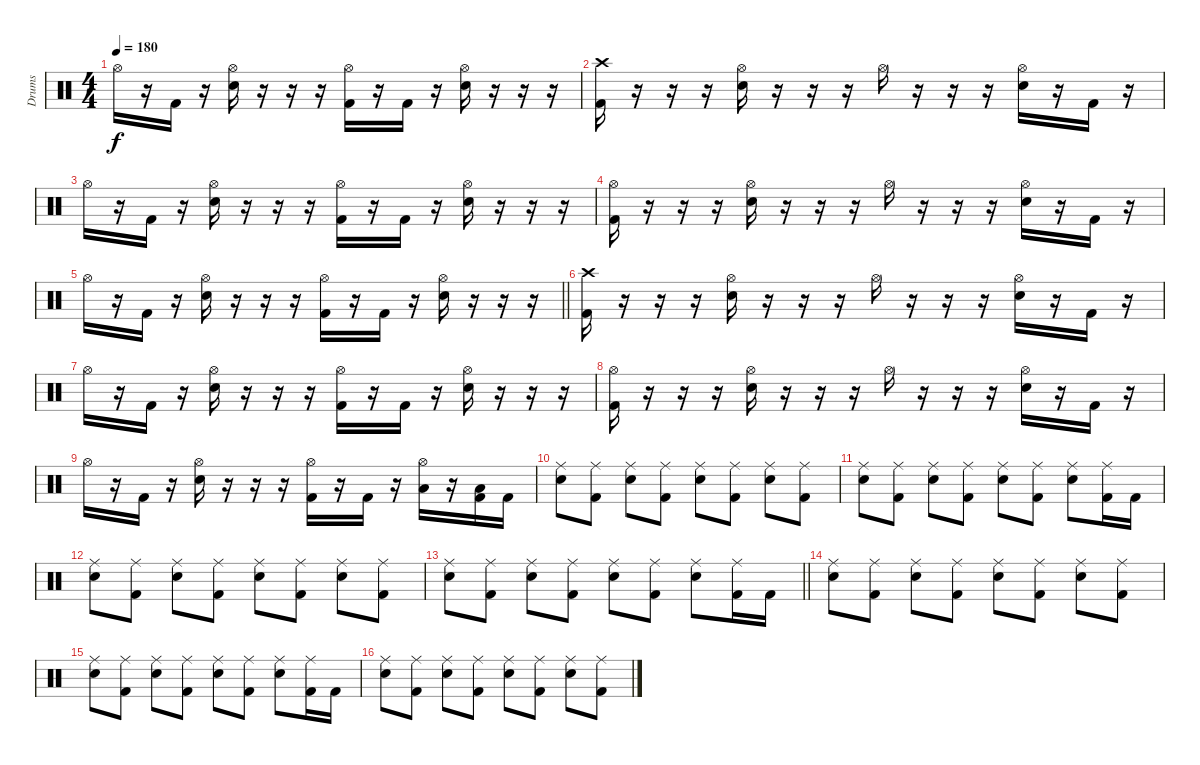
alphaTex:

\track ("Drums" "Drums") {instrument percussion}
\staff {score}
\articulation defaults
\ts (4 4)
\tempo 180
\clef neutral
\ks c "Hi-Hat (open)".16{dy f}
r.16 "Kick (hit) 2".16 r.16 ("Hi-Hat (open)" "Electric Snare (hit)").16 r.16 r.16 r.16 ("Hi-Hat (open)" "Kick (hit) 2").16 r.16 "Kick (hit) 2".16 r.16 ("Hi-Hat (open)" "Electric Snare (hit)").16 r.16 r.16 r.16 |
("Crash high (hit)" "Kick (hit) 2").16 r.16 r.16 r.16 ("Hi-Hat (open)" "Electric Snare (hit)").16 r.16 r.16 r.16 "Hi-Hat (open)".16 r.16 r.16 r.16 ("Hi-Hat (open)" "Electric Snare (hit)").16 r.16 "Kick (hit) 2".16 r.16 |
"Hi-Hat (open)".16 r.16 "Kick (hit) 2".16 r.16 ("Hi-Hat (open)" "Electric Snare (hit)").16 r.16 r.16 r.16 ("Hi-Hat (open)" "Kick (hit) 2").16 r.16 "Kick (hit) 2".16 r.16 ("Hi-Hat (open)" "Electric Snare (hit)").16 r.16 r.16 r.16 |
("Hi-Hat (open)" "Kick (hit) 2").16 r.16 r.16 r.16 ("Hi-Hat (open)" "Electric Snare (hit)").16 r.16 r.16 r.16 "Hi-Hat (open)".16 r.16 r.16 r.16 ("Hi-Hat (open)" "Electric Snare (hit)").16 r.16 "Kick (hit) 2".16 r.16 |
\barLineRight lightlight "Hi-Hat (open)".16
r.16 "Kick (hit) 2".16 r.16 ("Hi-Hat (open)" "Electric Snare (hit)").16 r.16 r.16 r.16 ("Hi-Hat (open)" "Kick (hit) 2").16 r.16 "Kick (hit) 2".16 r.16 ("Hi-Hat (open)" "Electric Snare (hit)").16 r.16 r.16 r.16 |
("Crash high (hit)" "Kick (hit) 2").16 r.16 r.16 r.16 ("Hi-Hat (open)" "Electric Snare (hit)").16 r.16 r.16 r.16 "Hi-Hat (open)".16 r.16 r.16 r.16 ("Hi-Hat (open)" "Electric Snare (hit)").16 r.16 "Kick (hit) 2".16 r.16 |
"Hi-Hat (open)".16 r.16 "Kick (hit) 2".16 r.16 ("Hi-Hat (open)" "Electric Snare (hit)").16 r.16 r.16 r.16 ("Hi-Hat (open)" "Kick (hit) 2").16 r.16 "Kick (hit) 2".16 r.16 ("Hi-Hat (open)" "Electric Snare (hit)").16 r.16 r.16 r.16 |
("Hi-Hat (open)" "Kick (hit) 2").16 r.16 r.16 r.16 ("Hi-Hat (open)" "Electric Snare (hit)").16 r.16 r.16 r.16 "Hi-Hat (open)".16 r.16 r.16 r.16 ("Hi-Hat (open)" "Electric Snare (hit)").16 r.16 "Kick (hit) 2".16 r.16 |
"Hi-Hat (open)".16 r.16 "Kick (hit) 2".16 r.16 ("Hi-Hat (open)" "Electric Snare (hit)").16 r.16 r.16 r.16 ("Hi-Hat (open)" "Kick (hit) 2").16 r.16 "Kick (hit) 2".16 r.16 ("Hi-Hat (open)" "Low Tom (hit)").16 r.16 ("Low Floor Tom (hit)" "Kick (hit) 2").16 "Kick (hit) 2".16 |
("Ride (middle)" "Electric Snare (hit)").8 ("Ride (middle)" "Kick (hit) 2").8 ("Ride (middle)" "Electric Snare (hit)").8 ("Ride (middle)" "Kick (hit) 2").8 ("Ride (middle)" "Electric Snare (hit)").8 ("Ride (middle)" "Kick (hit) 2").8 ("Ride (middle)" "Electric Snare (hit)").8 ("Ride (middle)" "Kick (hit) 2").8 |
("Ride (middle)" "Electric Snare (hit)").8 ("Ride (middle)" "Kick (hit) 2").8 ("Ride (middle)" "Electric Snare (hit)").8 ("Ride (middle)" "Kick (hit) 2").8 ("Ride (middle)" "Electric Snare (hit)").8 ("Ride (middle)" "Kick (hit) 2").8 ("Ride (middle)" "Electric Snare (hit)").8 ("Ride (middle)" "Kick (hit) 2").16 "Kick (hit) 2".16 |
("Ride (middle)" "Electric Snare (hit)").8 ("Ride (middle)" "Kick (hit) 2").8 ("Ride (middle)" "Electric Snare (hit)").8 ("Ride (middle)" "Kick (hit) 2").8 ("Ride (middle)" "Electric Snare (hit)").8 ("Ride (middle)" "Kick (hit) 2").8 ("Ride (middle)" "Electric Snare (hit)").8 ("Ride (middle)" "Kick (hit) 2").8 |
\barLineRight lightlight
("Ride (middle)" "Electric Snare (hit)").8 ("Ride (middle)" "Kick (hit) 2").8 ("Ride (middle)" "Electric Snare (hit)").8 ("Ride (middle)" "Kick (hit) 2").8 ("Ride (middle)" "Electric Snare (hit)").8 ("Ride (middle)" "Kick (hit) 2").8 ("Ride (middle)" "Electric Snare (hit)").8 ("Ride (middle)" "Kick (hit) 2").16 "Kick (hit) 2".16 |
("Ride (middle)" "Electric Snare (hit)").8{volume 0} ("Ride (middle)" "Kick (hit) 2").8 ("Ride (middle)" "Electric Snare (hit)").8 ("Ride (middle)" "Kick (hit) 2").8 ("Ride (middle)" "Electric Snare (hit)").8 ("Ride (middle)" "Kick (hit) 2").8 ("Ride (middle)" "Electric Snare (hit)").8 ("Ride (middle)" "Kick (hit) 2").8 |
("Ride (middle)" "Electric Snare (hit)").8 ("Ride (middle)" "Kick (hit) 2").8 ("Ride (middle)" "Electric Snare (hit)").8 ("Ride (middle)" "Kick (hit) 2").8 ("Ride (middle)" "Electric Snare (hit)").8 ("Ride (middle)" "Kick (hit) 2").8 ("Ride (middle)" "Electric Snare (hit)").8 ("Ride (middle)" "Kick (hit) 2").16 "Kick (hit) 2".16 |
("Ride (middle)" "Electric Snare (hit)").8 ("Ride (middle)" "Kick (hit) 2").8 ("Ride (middle)" "Electric Snare (hit)").8 ("Ride (middle)" "Kick (hit) 2").8 ("Ride (middle)" "Electric Snare (hit)").8 ("Ride (middle)" "Kick (hit) 2").8 ("Ride (middle)" "Electric Snare (hit)").8 ("Ride (middle)" "Kick (hit) 2").8
